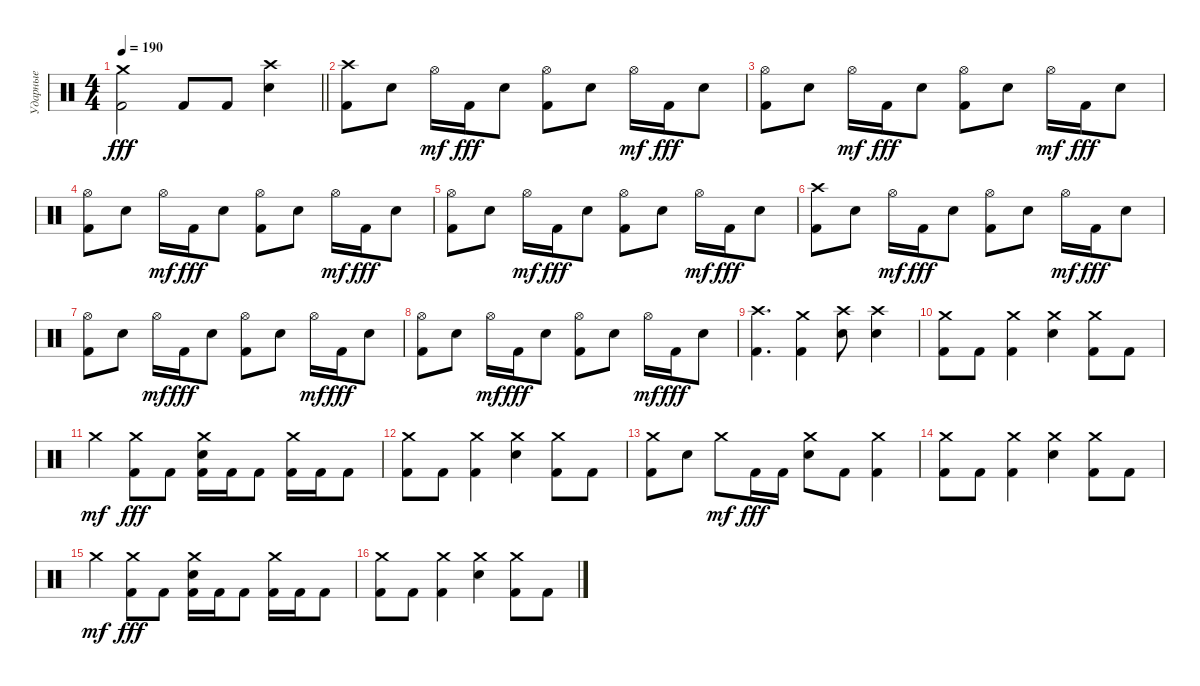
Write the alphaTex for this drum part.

\track ("Ударные" "Ударные") {instrument percussion}
\staff {score}
\articulation defaults
\ts (4 4)
\tempo 190
\clef neutral
\barLineRight lightlight
\ks c
("Crash medium (hit)" "Kick (hit) 2").2{dy fff} "Kick (hit) 2".8 "Kick (hit) 2".8 ("Crash high (hit)" "Electric Snare (hit)").4 |
\section ("" "")
("Crash high (hit)" "Kick (hit) 2").8 "Electric Snare (hit)".8 "Hi-Hat (open)".16{dy mf} "Kick (hit) 2".16{dy fff} "Electric Snare (hit)".8 ("Hi-Hat (open)" "Kick (hit) 2").8 "Electric Snare (hit)".8 "Hi-Hat (open)".16{dy mf} "Kick (hit) 2".16{dy fff} "Electric Snare (hit)".8 |
("Hi-Hat (open)" "Kick (hit) 2").8 "Electric Snare (hit)".8 "Hi-Hat (open)".16{dy mf} "Kick (hit) 2".16{dy fff} "Electric Snare (hit)".8 ("Hi-Hat (open)" "Kick (hit) 2").8 "Electric Snare (hit)".8 "Hi-Hat (open)".16{dy mf} "Kick (hit) 2".16{dy fff} "Electric Snare (hit)".8 |
("Hi-Hat (open)" "Kick (hit) 2").8 "Electric Snare (hit)".8 "Hi-Hat (open)".16{dy mf} "Kick (hit) 2".16{dy fff} "Electric Snare (hit)".8 ("Hi-Hat (open)" "Kick (hit) 2").8 "Electric Snare (hit)".8 "Hi-Hat (open)".16{dy mf} "Kick (hit) 2".16{dy fff} "Electric Snare (hit)".8 |
("Hi-Hat (open)" "Kick (hit) 2").8 "Electric Snare (hit)".8 "Hi-Hat (open)".16{dy mf} "Kick (hit) 2".16{dy fff} "Electric Snare (hit)".8 ("Hi-Hat (open)" "Kick (hit) 2").8 "Electric Snare (hit)".8 "Hi-Hat (open)".16{dy mf} "Kick (hit) 2".16{dy fff} "Electric Snare (hit)".8 |
("Crash high (hit)" "Kick (hit) 2").8 "Electric Snare (hit)".8 "Hi-Hat (open)".16{dy mf} "Kick (hit) 2".16{dy fff} "Electric Snare (hit)".8 ("Hi-Hat (open)" "Kick (hit) 2").8 "Electric Snare (hit)".8 "Hi-Hat (open)".16{dy mf} "Kick (hit) 2".16{dy fff} "Electric Snare (hit)".8 |
("Hi-Hat (open)" "Kick (hit) 2").8 "Electric Snare (hit)".8 "Hi-Hat (open)".16{dy mf} "Kick (hit) 2".16{dy fff} "Electric Snare (hit)".8 ("Hi-Hat (open)" "Kick (hit) 2").8 "Electric Snare (hit)".8 "Hi-Hat (open)".16{dy mf} "Kick (hit) 2".16{dy fff} "Electric Snare (hit)".8 |
("Hi-Hat (open)" "Kick (hit) 2").8 "Electric Snare (hit)".8 "Hi-Hat (open)".16{dy mf} "Kick (hit) 2".16{dy fff} "Electric Snare (hit)".8 ("Hi-Hat (open)" "Kick (hit) 2").8 "Electric Snare (hit)".8 "Hi-Hat (open)".16{dy mf} "Kick (hit) 2".16{dy fff} "Electric Snare (hit)".8 |
("Crash high (hit)" "Kick (hit) 2").4{d} ("Crash medium (hit)" "Kick (hit) 2").4 ("Crash high (hit)" "Electric Snare (hit)").8 ("Crash high (hit)" "Electric Snare (hit)").4 |
("Crash medium (hit)" "Kick (hit) 2").8 "Kick (hit) 2".8 ("Crash medium (hit)" "Kick (hit) 2").4 ("Crash medium (hit)" "Electric Snare (hit)").4 ("Crash medium (hit)" "Kick (hit) 2").8 "Kick (hit) 2".8 |
"Crash medium (hit)".4{dy mf} ("Crash medium (hit)" "Kick (hit) 2").8{dy fff} "Kick (hit) 2".8 ("Crash medium (hit)" "Electric Snare (hit)" "Kick (hit) 2").16 "Kick (hit) 2".16 "Kick (hit) 2".8 ("Crash medium (hit)" "Kick (hit) 2").16 "Kick (hit) 2".16 "Kick (hit) 2".8 |
("Crash medium (hit)" "Kick (hit) 2").8 "Kick (hit) 2".8 ("Crash medium (hit)" "Kick (hit) 2").4 ("Crash medium (hit)" "Electric Snare (hit)").4 ("Crash medium (hit)" "Kick (hit) 2").8 "Kick (hit) 2".8 |
("Crash medium (hit)" "Kick (hit) 2").8 "Electric Snare (hit)".8 "Crash medium (hit)".8{dy mf} "Kick (hit) 2".16{dy fff} "Kick (hit) 2".16 ("Crash medium (hit)" "Electric Snare (hit)").8 "Kick (hit) 2".8 ("Crash medium (hit)" "Kick (hit) 2").4 |
("Crash medium (hit)" "Kick (hit) 2").8 "Kick (hit) 2".8 ("Crash medium (hit)" "Kick (hit) 2").4 ("Crash medium (hit)" "Electric Snare (hit)").4 ("Crash medium (hit)" "Kick (hit) 2").8 "Kick (hit) 2".8 |
"Crash medium (hit)".4{dy mf} ("Crash medium (hit)" "Kick (hit) 2").8{dy fff} "Kick (hit) 2".8 ("Crash medium (hit)" "Electric Snare (hit)" "Kick (hit) 2").16 "Kick (hit) 2".16 "Kick (hit) 2".8 ("Crash medium (hit)" "Kick (hit) 2").16 "Kick (hit) 2".16 "Kick (hit) 2".8 |
("Crash medium (hit)" "Kick (hit) 2").8 "Kick (hit) 2".8 ("Crash medium (hit)" "Kick (hit) 2").4 ("Crash medium (hit)" "Electric Snare (hit)").4 ("Crash medium (hit)" "Kick (hit) 2").8 "Kick (hit) 2".8
